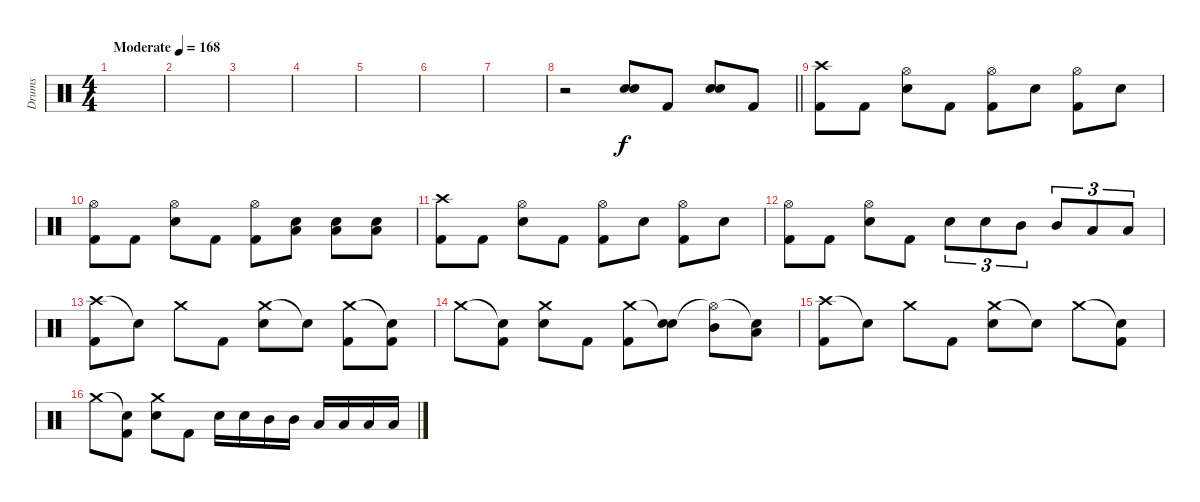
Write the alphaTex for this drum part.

\track ("Drums" "Drums") {instrument percussion}
\staff {score}
\articulation defaults
\ts (4 4)
\tempo (168 "Moderate")
\clef neutral
\ks c
|
|
|
|
|
|
|
\barLineRight lightlight
r.2 ("Snare (hit) 2" "Electric Snare (hit)").8 "Kick (hit) 2".8 ("Snare (hit) 2" "Electric Snare (hit)").8 "Kick (hit) 2".8 |
\section ("" " ")
("Crash high (hit)" "Kick (hit) 2").8 "Kick (hit) 2".8 ("Hi-Hat (open)" "Electric Snare (hit)").8 "Kick (hit) 2".8 ("Hi-Hat (open)" "Kick (hit) 2").8 "Electric Snare (hit)".8 ("Hi-Hat (open)" "Kick (hit) 2").8 "Electric Snare (hit)".8 |
("Hi-Hat (open)" "Kick (hit) 2").8 "Kick (hit) 2".8 ("Hi-Hat (open)" "Electric Snare (hit)").8 "Kick (hit) 2".8 ("Hi-Hat (open)" "Kick (hit) 2").8 ("Electric Snare (hit)" "Low Floor Tom (hit)").8 ("Electric Snare (hit)" "Low Floor Tom (hit)").8 ("Electric Snare (hit)" "Low Floor Tom (hit)").8 |
("Crash high (hit)" "Kick (hit) 2").8 "Kick (hit) 2".8 ("Hi-Hat (open)" "Electric Snare (hit)").8 "Kick (hit) 2".8 ("Hi-Hat (open)" "Kick (hit) 2").8 "Electric Snare (hit)".8 ("Hi-Hat (open)" "Kick (hit) 2").8 "Electric Snare (hit)".8 |
("Hi-Hat (open)" "Kick (hit) 2").8 "Kick (hit) 2".8 ("Hi-Hat (open)" "Electric Snare (hit)").8 "Kick (hit) 2".8 "Electric Snare (hit)".8{tu (3 2)} "Electric Snare (hit)".8{tu (3 2)} "Mid Tom (hit)".8{tu (3 2)} "Mid Tom (hit)".8{tu (3 2)} "Low Tom (hit)".8{tu (3 2)} "Low Tom (hit)".8{tu (3 2)} |
("Crash high (hit)" "Kick (hit) 2").8 "Snare (hit)"{t}.8 "Crash medium (hit)".8 "Kick (hit) 2".8 ("Crash medium (hit)" "Electric Snare (hit)").8 "Snare (hit)"{t}.8 ("Crash medium (hit)" "Kick (hit) 2").8 ("Snare (hit)"{t} "Kick (hit) 2").8 |
"Crash medium (hit)".8 ("Snare (hit)"{t} "Kick (hit) 2").8 ("Crash medium (hit)" "Electric Snare (hit)").8 "Kick (hit) 2".8 ("Crash medium (hit)" "Kick (hit) 2").8 ("Snare (hit)"{t} "Electric Snare (hit)").8 ("Hi-Hat (open)"{t} "Mid Tom (hit)").8 ("Snare (hit)"{t} "Low Tom (hit)").8 |
("Crash high (hit)" "Kick (hit) 2").8 "Snare (hit)"{t}.8 "Crash medium (hit)".8 "Kick (hit) 2".8 ("Crash medium (hit)" "Electric Snare (hit)").8 "Snare (hit)"{t}.8 "Crash medium (hit)".8 ("Snare (hit)"{t} "Kick (hit) 2").8 |
"Crash medium (hit)".8 ("Snare (hit)"{t} "Kick (hit) 2").8 ("Crash medium (hit)" "Electric Snare (hit)").8 "Kick (hit) 2".8 "Electric Snare (hit)".16 "Electric Snare (hit)".16 "Mid Tom (hit)".16 "Mid Tom (hit)".16 "Low Tom (hit)".16 "Low Tom (hit)".16 "Low Floor Tom (hit)".16 "Low Floor Tom (hit)".16
